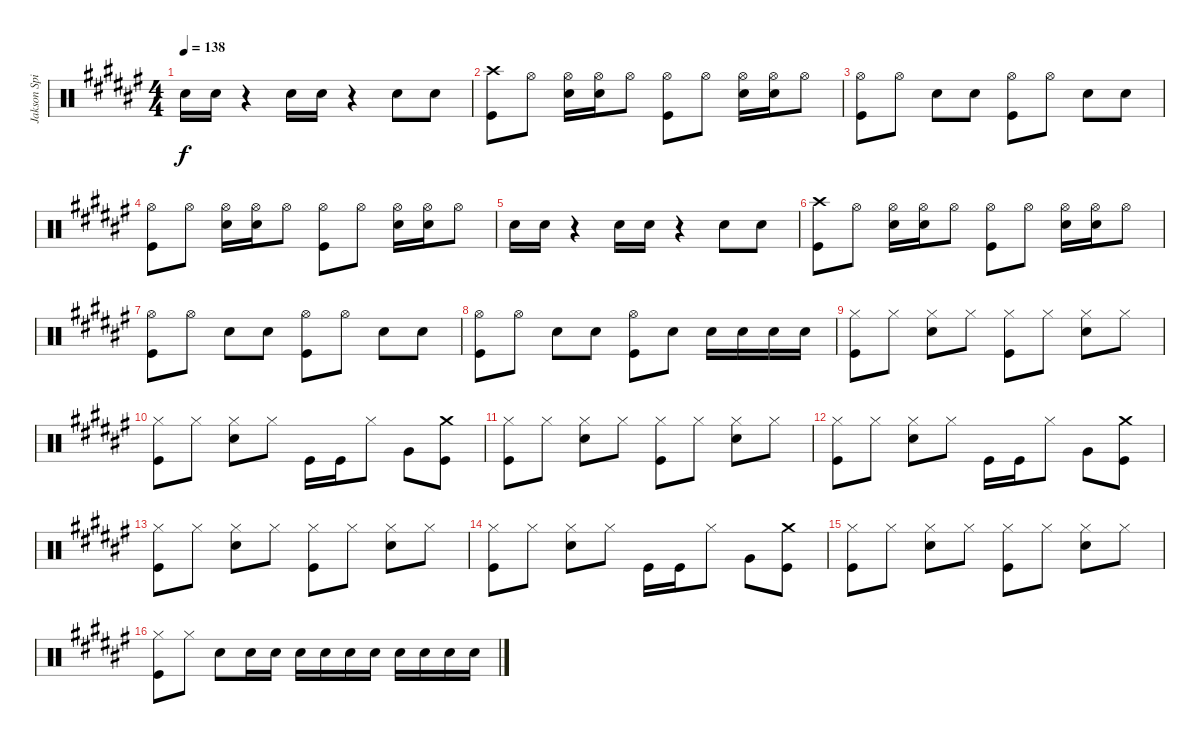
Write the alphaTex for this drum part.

\track ("Jakson Spires" "Jakson Spi") {instrument percussion}
\staff {score}
\articulation defaults
\ts (4 4)
\tempo 138
\clef neutral
\ks f# "Snare (hit) 2".16{dy f} "Snare (hit) 2".16
r.4 "Snare (hit) 2".16 "Snare (hit) 2".16 r.4 "Snare (hit) 2".8 "Snare (hit) 2".8 |
("Crash high (hit)" "Kick (hit)").8 "Hi-Hat (open)".8 ("Hi-Hat (open)" "Snare (hit) 2").16 ("Hi-Hat (open)" "Snare (hit) 2").16 "Hi-Hat (open)".8 ("Hi-Hat (open)" "Kick (hit)").8 "Hi-Hat (open)".8 ("Hi-Hat (open)" "Snare (hit) 2").16 ("Hi-Hat (open)" "Snare (hit) 2").16 "Hi-Hat (open)".8 |
("Hi-Hat (open)" "Kick (hit)").8 "Hi-Hat (open)".8 "Snare (hit) 2".8 "Snare (hit) 2".8 ("Hi-Hat (open)" "Kick (hit)").8 "Hi-Hat (open)".8 "Snare (hit) 2".8 "Snare (hit) 2".8 |
("Hi-Hat (open)" "Kick (hit)").8 "Hi-Hat (open)".8 ("Hi-Hat (open)" "Snare (hit) 2").16 ("Hi-Hat (open)" "Snare (hit) 2").16 "Hi-Hat (open)".8 ("Hi-Hat (open)" "Kick (hit)").8 "Hi-Hat (open)".8 ("Hi-Hat (open)" "Snare (hit) 2").16 ("Hi-Hat (open)" "Snare (hit) 2").16 "Hi-Hat (open)".8 |
"Snare (hit) 2".16 "Snare (hit) 2".16 r.4 "Snare (hit) 2".16 "Snare (hit) 2".16 r.4 "Snare (hit) 2".8 "Snare (hit) 2".8 |
("Crash high (hit)" "Kick (hit)").8 "Hi-Hat (open)".8 ("Hi-Hat (open)" "Snare (hit) 2").16 ("Hi-Hat (open)" "Snare (hit) 2").16 "Hi-Hat (open)".8 ("Hi-Hat (open)" "Kick (hit)").8 "Hi-Hat (open)".8 ("Hi-Hat (open)" "Snare (hit) 2").16 ("Hi-Hat (open)" "Snare (hit) 2").16 "Hi-Hat (open)".8 |
("Hi-Hat (open)" "Kick (hit)").8 "Hi-Hat (open)".8 "Snare (hit) 2".8 "Snare (hit) 2".8 ("Hi-Hat (open)" "Kick (hit)").8 "Hi-Hat (open)".8 "Snare (hit) 2".8 "Snare (hit) 2".8 |
("Hi-Hat (open)" "Kick (hit)").8 "Hi-Hat (open)".8 "Snare (hit) 2".8 "Snare (hit) 2".8 ("Hi-Hat (open)" "Kick (hit)").8 "Snare (hit) 2".8 "Snare (hit) 2".16 "Snare (hit) 2".16 "Snare (hit) 2".16 "Snare (hit) 2".16 |
("Hi-Hat (closed)" "Kick (hit)").8 "Hi-Hat (closed)".8 ("Hi-Hat (closed)" "Snare (hit) 2").8 "Hi-Hat (closed)".8 ("Hi-Hat (closed)" "Kick (hit)").8 "Hi-Hat (closed)".8 ("Hi-Hat (closed)" "Snare (hit) 2").8 "Hi-Hat (closed)".8 |
("Hi-Hat (closed)" "Kick (hit)").8 "Hi-Hat (closed)".8 ("Hi-Hat (closed)" "Snare (hit) 2").8 "Hi-Hat (closed)".8 "Kick (hit)".16 "Kick (hit)".16 "Hi-Hat (closed)".8 "Very Low Tom (hit)".8 ("Crash medium (hit)" "Kick (hit)").8 |
("Hi-Hat (closed)" "Kick (hit)").8 "Hi-Hat (closed)".8 ("Hi-Hat (closed)" "Snare (hit) 2").8 "Hi-Hat (closed)".8 ("Hi-Hat (closed)" "Kick (hit)").8 "Hi-Hat (closed)".8 ("Hi-Hat (closed)" "Snare (hit) 2").8 "Hi-Hat (closed)".8 |
("Hi-Hat (closed)" "Kick (hit)").8 "Hi-Hat (closed)".8 ("Hi-Hat (closed)" "Snare (hit) 2").8 "Hi-Hat (closed)".8 "Kick (hit)".16 "Kick (hit)".16 "Hi-Hat (closed)".8 "Very Low Tom (hit)".8 ("Crash medium (hit)" "Kick (hit)").8 |
("Hi-Hat (closed)" "Kick (hit)").8 "Hi-Hat (closed)".8 ("Hi-Hat (closed)" "Snare (hit) 2").8 "Hi-Hat (closed)".8 ("Hi-Hat (closed)" "Kick (hit)").8 "Hi-Hat (closed)".8 ("Hi-Hat (closed)" "Snare (hit) 2").8 "Hi-Hat (closed)".8 |
("Hi-Hat (closed)" "Kick (hit)").8 "Hi-Hat (closed)".8 ("Hi-Hat (closed)" "Snare (hit) 2").8 "Hi-Hat (closed)".8 "Kick (hit)".16 "Kick (hit)".16 "Hi-Hat (closed)".8 "Very Low Tom (hit)".8 ("Crash medium (hit)" "Kick (hit)").8 |
("Hi-Hat (closed)" "Kick (hit)").8 "Hi-Hat (closed)".8 ("Hi-Hat (closed)" "Snare (hit) 2").8 "Hi-Hat (closed)".8 ("Hi-Hat (closed)" "Kick (hit)").8 "Hi-Hat (closed)".8 ("Hi-Hat (closed)" "Snare (hit) 2").8 "Hi-Hat (closed)".8 |
("Hi-Hat (closed)" "Kick (hit)").8 "Hi-Hat (closed)".8 "Snare (hit) 2".8 "Snare (hit) 2".16 "Snare (hit) 2".16 "Snare (hit) 2".16 "Snare (hit) 2".16 "Snare (hit) 2".16 "Snare (hit) 2".16 "Snare (hit) 2".16 "Snare (hit) 2".16 "Snare (hit) 2".16 "Snare (hit) 2".16
